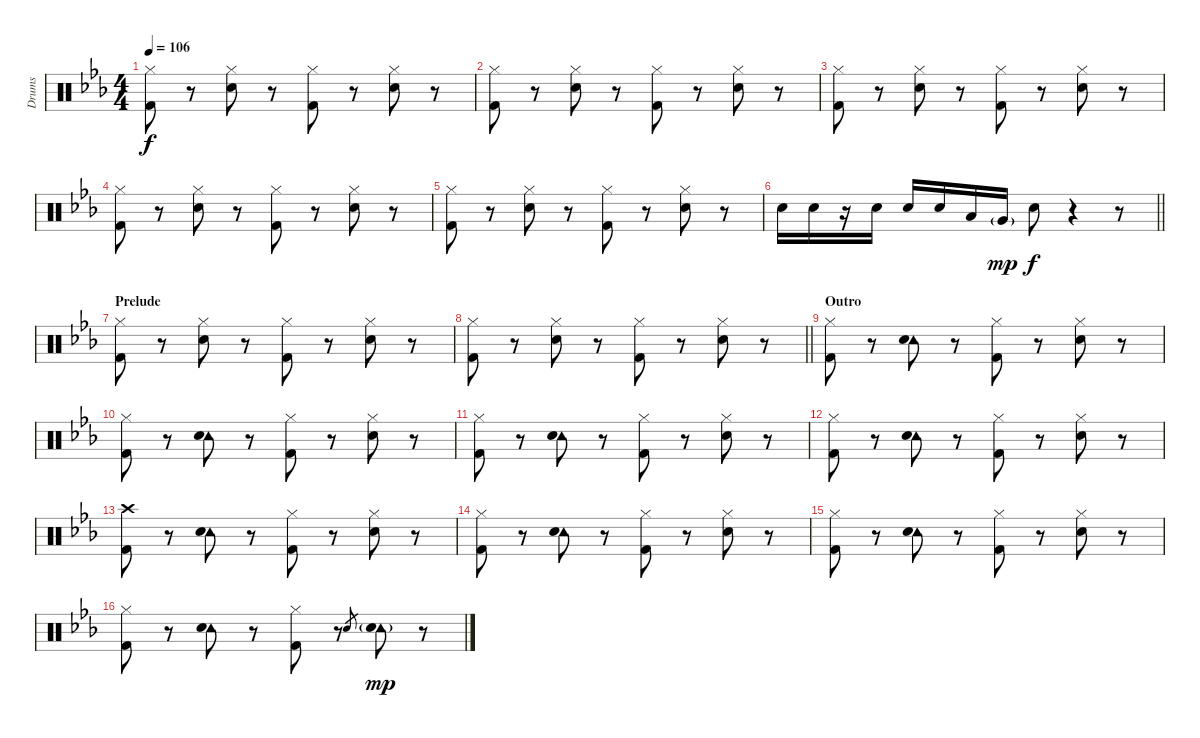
\track ("Drums" "Drums") {instrument percussion}
\staff {score}
\articulation defaults
\ts (4 4)
\tempo 106
\clef neutral
\ks cminor
("Hi-Hat (closed)" "Kick (hit) 2").8{dy f} r.8 ("Hi-Hat (closed)" "Snare (hit) 2").8 r.8 ("Hi-Hat (closed)" "Kick (hit) 2").8 r.8 ("Hi-Hat (closed)" "Snare (hit) 2").8 r.8 |
("Hi-Hat (closed)" "Kick (hit) 2").8 r.8 ("Hi-Hat (closed)" "Snare (hit) 2").8 r.8 ("Hi-Hat (closed)" "Kick (hit) 2").8 r.8 ("Hi-Hat (closed)" "Snare (hit) 2").8 r.8 |
("Hi-Hat (closed)" "Kick (hit) 2").8 r.8 ("Hi-Hat (closed)" "Snare (hit) 2").8 r.8 ("Hi-Hat (closed)" "Kick (hit) 2").8 r.8 ("Hi-Hat (closed)" "Snare (hit) 2").8 r.8 |
("Hi-Hat (closed)" "Kick (hit) 2").8 r.8 ("Hi-Hat (closed)" "Snare (hit) 2").8 r.8 ("Hi-Hat (closed)" "Kick (hit) 2").8 r.8 ("Hi-Hat (closed)" "Snare (hit) 2").8 r.8 |
("Hi-Hat (closed)" "Kick (hit) 2").8 r.8 ("Hi-Hat (closed)" "Snare (hit) 2").8 r.8 ("Hi-Hat (closed)" "Kick (hit) 2").8 r.8 ("Hi-Hat (closed)" "Snare (hit) 2").8 r.8 |
\barLineRight lightlight "Snare (hit) 2".16 "Snare (hit) 2".16
r.16 "Snare (hit) 2".16 "Snare (hit) 2".16 "Snare (hit) 2".16 "Low Tom (hit)".16 "Very Low Tom (hit)"{g}.16{dy mp} "Snare (hit) 2".8{dy f} r.4 r.8 |
\section ("" "Prelude")
("Hi-Hat (closed)" "Kick (hit) 2").8 r.8 ("Hi-Hat (closed)" "Snare (hit) 2").8 r.8 ("Hi-Hat (closed)" "Kick (hit) 2").8 r.8 ("Hi-Hat (closed)" "Snare (hit) 2").8 r.8 |
\barLineRight lightlight
("Hi-Hat (closed)" "Kick (hit) 2").8 r.8 ("Hi-Hat (closed)" "Snare (hit) 2").8 r.8 ("Hi-Hat (closed)" "Kick (hit) 2").8 r.8 ("Hi-Hat (closed)" "Snare (hit) 2").8 r.8 |
\section ("" "Outro")
("Hi-Hat (closed)" "Kick (hit) 2").8 r.8 ("Tambourine (hit)" "Snare (hit) 2").8 r.8 ("Hi-Hat (closed)" "Kick (hit) 2").8 r.8 ("Hi-Hat (closed)" "Snare (hit) 2").8 r.8 |
("Hi-Hat (closed)" "Kick (hit) 2").8 r.8 ("Tambourine (hit)" "Snare (hit) 2").8 r.8 ("Hi-Hat (closed)" "Kick (hit) 2").8 r.8 ("Hi-Hat (closed)" "Snare (hit) 2").8 r.8 |
("Hi-Hat (closed)" "Kick (hit) 2").8 r.8 ("Tambourine (hit)" "Snare (hit) 2").8 r.8 ("Hi-Hat (closed)" "Kick (hit) 2").8 r.8 ("Hi-Hat (closed)" "Snare (hit) 2").8 r.8 |
("Hi-Hat (closed)" "Kick (hit) 2").8 r.8 ("Tambourine (hit)" "Snare (hit) 2").8 r.8 ("Hi-Hat (closed)" "Kick (hit) 2").8 r.8 ("Hi-Hat (closed)" "Snare (hit) 2").8 r.8 |
("Crash high (hit)" "Kick (hit) 2").8 r.8 ("Tambourine (hit)" "Snare (hit) 2").8 r.8 ("Hi-Hat (closed)" "Kick (hit) 2").8 r.8 ("Hi-Hat (closed)" "Snare (hit) 2").8 r.8 |
("Hi-Hat (closed)" "Kick (hit) 2").8 r.8 ("Tambourine (hit)" "Snare (hit) 2").8 r.8 ("Hi-Hat (closed)" "Kick (hit) 2").8 r.8 ("Hi-Hat (closed)" "Snare (hit) 2").8 r.8 |
("Hi-Hat (closed)" "Kick (hit) 2").8 r.8 ("Tambourine (hit)" "Snare (hit) 2").8 r.8 ("Hi-Hat (closed)" "Kick (hit) 2").8 r.8 ("Hi-Hat (closed)" "Snare (hit) 2").8 r.8 |
("Hi-Hat (closed)" "Kick (hit) 2").8 r.8 ("Tambourine (hit)" "Snare (hit) 2").8 r.8 ("Hi-Hat (closed)" "Kick (hit) 2").8 r.8 "Snare (hit) 2".8{gr} ("Tambourine (hit)"{g} "Snare (hit) 2").8{dy mp} r.8
